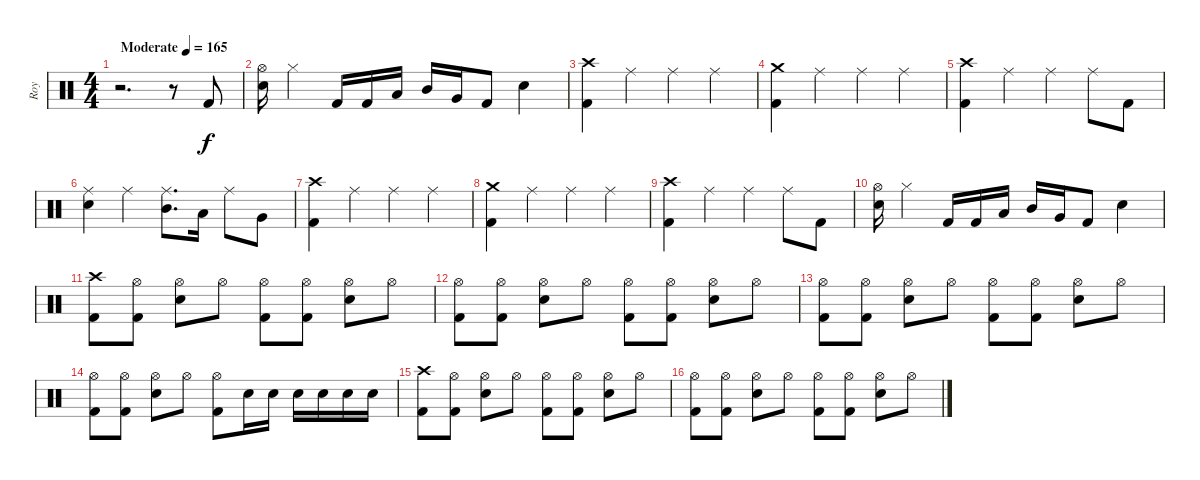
\track ("Roy" "Roy") {instrument percussion}
\staff {score}
\articulation defaults
\ts (4 4)
\tempo (165 "Moderate")
\clef neutral
\ks c
r.2{d dy f} r.8 "Kick (hit) 2".8 |
("Hi-Hat (open)" "Electric Snare (hit)").16 "Hi-Hat (closed)".4 "Kick (hit) 2".16 "Kick (hit) 2".16 "Low Tom (hit)".16 "Mid Tom (hit)".16 "Very Low Tom (hit)".16 "Kick (hit) 2".8 "Electric Snare (hit)".4 |
("Crash high (hit)" "Kick (hit) 2").4 "Ride (middle)".4 "Ride (middle)".4 "Ride (middle)".4 |
("Crash medium (hit)" "Kick (hit) 2").4 "Ride (middle)".4 "Ride (middle)".4 "Ride (middle)".4 |
("Crash high (hit)" "Kick (hit) 2").4 "Ride (middle)".4 "Ride (middle)".4 "Ride (middle)".8 "Kick (hit) 2".8 |
("Ride (middle)" "Electric Snare (hit)").4 "Ride (middle)".4 ("Ride (middle)" "Mid Tom (hit)").8{d} "Low Tom (hit)".16 "Ride (middle)".8 "Very Low Tom (hit)".8 |
("Crash high (hit)" "Kick (hit) 2").4 "Ride (middle)".4 "Ride (middle)".4 "Ride (middle)".4 |
("Crash medium (hit)" "Kick (hit) 2").4 "Ride (middle)".4 "Ride (middle)".4 "Ride (middle)".4 |
("Crash high (hit)" "Kick (hit) 2").4 "Ride (middle)".4 "Ride (middle)".4 "Ride (middle)".8 "Kick (hit) 2".8 |
("Hi-Hat (open)" "Electric Snare (hit)").16 "Hi-Hat (closed)".4 "Kick (hit) 2".16 "Kick (hit) 2".16 "Low Tom (hit)".16 "Mid Tom (hit)".16 "Very Low Tom (hit)".16 "Kick (hit) 2".8 "Electric Snare (hit)".4 |
("Crash high (hit)" "Kick (hit) 2").8 ("Hi-Hat (open)" "Kick (hit) 2").8 ("Hi-Hat (open)" "Electric Snare (hit)").8 "Hi-Hat (open)".8 ("Hi-Hat (open)" "Kick (hit) 2").8 ("Hi-Hat (open)" "Kick (hit) 2").8 ("Hi-Hat (open)" "Electric Snare (hit)").8 "Hi-Hat (open)".8 |
("Hi-Hat (open)" "Kick (hit) 2").8 ("Hi-Hat (open)" "Kick (hit) 2").8 ("Hi-Hat (open)" "Electric Snare (hit)").8 "Hi-Hat (open)".8 ("Hi-Hat (open)" "Kick (hit) 2").8 ("Hi-Hat (open)" "Kick (hit) 2").8 ("Hi-Hat (open)" "Electric Snare (hit)").8 "Hi-Hat (open)".8 |
("Hi-Hat (open)" "Kick (hit) 2").8 ("Hi-Hat (open)" "Kick (hit) 2").8 ("Hi-Hat (open)" "Electric Snare (hit)").8 "Hi-Hat (open)".8 ("Hi-Hat (open)" "Kick (hit) 2").8 ("Hi-Hat (open)" "Kick (hit) 2").8 ("Hi-Hat (open)" "Electric Snare (hit)").8 "Hi-Hat (open)".8 |
("Hi-Hat (open)" "Kick (hit) 2").8 ("Hi-Hat (open)" "Kick (hit) 2").8 ("Hi-Hat (open)" "Electric Snare (hit)").8 "Hi-Hat (open)".8 ("Hi-Hat (open)" "Kick (hit) 2").8 "Electric Snare (hit)".16 "Electric Snare (hit)".16 "Electric Snare (hit)".16 "Electric Snare (hit)".16 "Electric Snare (hit)".16 "Electric Snare (hit)".16 |
("Crash high (hit)" "Kick (hit) 2").8 ("Hi-Hat (open)" "Kick (hit) 2").8 ("Hi-Hat (open)" "Electric Snare (hit)").8 "Hi-Hat (open)".8 ("Hi-Hat (open)" "Kick (hit) 2").8 ("Hi-Hat (open)" "Kick (hit) 2").8 ("Hi-Hat (open)" "Electric Snare (hit)").8 "Hi-Hat (open)".8 |
("Hi-Hat (open)" "Kick (hit) 2").8 ("Hi-Hat (open)" "Kick (hit) 2").8 ("Hi-Hat (open)" "Electric Snare (hit)").8 "Hi-Hat (open)".8 ("Hi-Hat (open)" "Kick (hit) 2").8 ("Hi-Hat (open)" "Kick (hit) 2").8 ("Hi-Hat (open)" "Electric Snare (hit)").8 "Hi-Hat (open)".8
